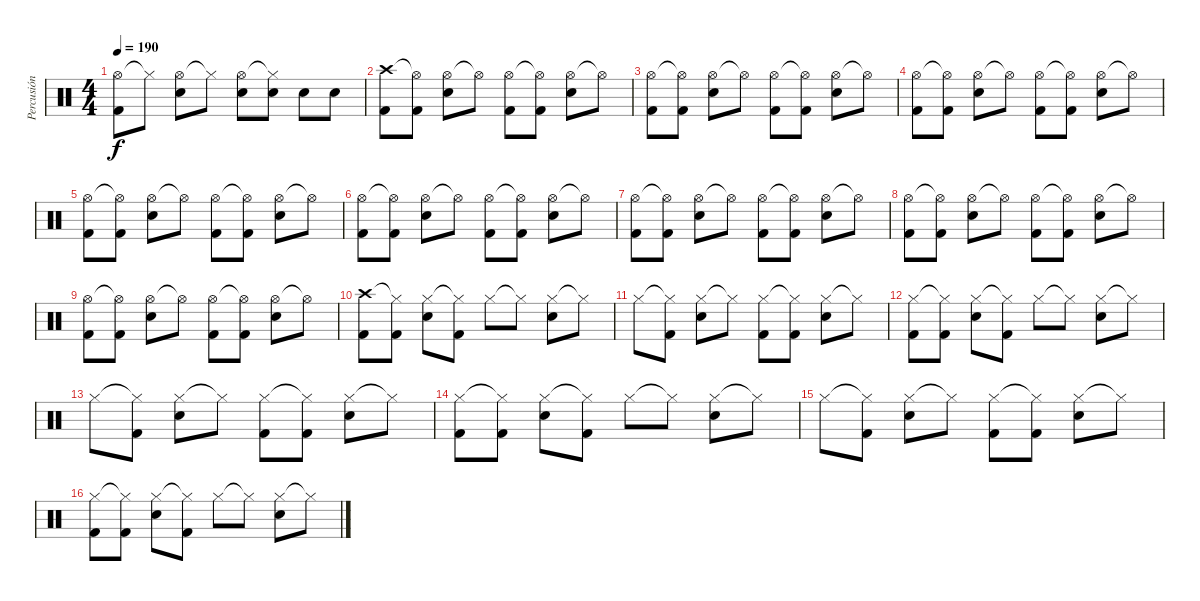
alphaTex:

\track ("Percusión" "Percusión") {instrument percussion}
\staff {score}
\articulation defaults
\ts (4 4)
\tempo 190
\clef neutral
\ks c
("Hi-Hat (open)" "Kick (hit) 2").8{dy f} "Hi-Hat (closed)"{t}.8 ("Hi-Hat (open)" "Snare (hit) 2").8 "Hi-Hat (closed)"{t}.8 ("Hi-Hat (open)" "Snare (hit) 2").8 ("Hi-Hat (closed)"{t} "Snare (hit) 2").8 "Snare (hit) 2".8 "Snare (hit) 2".8 |
("Crash high (hit)" "Kick (hit) 2").8 ("Hi-Hat (open)"{t} "Kick (hit) 2").8 ("Hi-Hat (open)" "Snare (hit) 2").8 "Hi-Hat (open)"{t}.8 ("Hi-Hat (open)" "Kick (hit) 2").8 ("Hi-Hat (open)"{t} "Kick (hit) 2").8 ("Hi-Hat (open)" "Snare (hit) 2").8 "Hi-Hat (open)"{t}.8 |
("Hi-Hat (open)" "Kick (hit) 2").8 ("Hi-Hat (open)"{t} "Kick (hit) 2").8 ("Hi-Hat (open)" "Snare (hit) 2").8 "Hi-Hat (open)"{t}.8 ("Hi-Hat (open)" "Kick (hit) 2").8 ("Hi-Hat (open)"{t} "Kick (hit) 2").8 ("Hi-Hat (open)" "Snare (hit) 2").8 "Hi-Hat (open)"{t}.8 |
("Hi-Hat (open)" "Kick (hit) 2").8 ("Hi-Hat (open)"{t} "Kick (hit) 2").8 ("Hi-Hat (open)" "Snare (hit) 2").8 "Hi-Hat (open)"{t}.8 ("Hi-Hat (open)" "Kick (hit) 2").8 ("Hi-Hat (open)"{t} "Kick (hit) 2").8 ("Hi-Hat (open)" "Snare (hit) 2").8 "Hi-Hat (open)"{t}.8 |
("Hi-Hat (open)" "Kick (hit) 2").8 ("Hi-Hat (open)"{t} "Kick (hit) 2").8 ("Hi-Hat (open)" "Snare (hit) 2").8 "Hi-Hat (open)"{t}.8 ("Hi-Hat (open)" "Kick (hit) 2").8 ("Hi-Hat (open)"{t} "Kick (hit) 2").8 ("Hi-Hat (open)" "Snare (hit) 2").8 "Hi-Hat (open)"{t}.8 |
("Hi-Hat (open)" "Kick (hit) 2").8 ("Hi-Hat (open)"{t} "Kick (hit) 2").8 ("Hi-Hat (open)" "Snare (hit) 2").8 "Hi-Hat (open)"{t}.8 ("Hi-Hat (open)" "Kick (hit) 2").8 ("Hi-Hat (open)"{t} "Kick (hit) 2").8 ("Hi-Hat (open)" "Snare (hit) 2").8 "Hi-Hat (open)"{t}.8 |
("Hi-Hat (open)" "Kick (hit) 2").8 ("Hi-Hat (open)"{t} "Kick (hit) 2").8 ("Hi-Hat (open)" "Snare (hit) 2").8 "Hi-Hat (open)"{t}.8 ("Hi-Hat (open)" "Kick (hit) 2").8 ("Hi-Hat (open)"{t} "Kick (hit) 2").8 ("Hi-Hat (open)" "Snare (hit) 2").8 "Hi-Hat (open)"{t}.8 |
("Hi-Hat (open)" "Kick (hit) 2").8 ("Hi-Hat (open)"{t} "Kick (hit) 2").8 ("Hi-Hat (open)" "Snare (hit) 2").8 "Hi-Hat (open)"{t}.8 ("Hi-Hat (open)" "Kick (hit) 2").8 ("Hi-Hat (open)"{t} "Kick (hit) 2").8 ("Hi-Hat (open)" "Snare (hit) 2").8 "Hi-Hat (open)"{t}.8 |
("Hi-Hat (open)" "Kick (hit) 2").8 ("Hi-Hat (open)"{t} "Kick (hit) 2").8 ("Hi-Hat (open)" "Snare (hit) 2").8 "Hi-Hat (open)"{t}.8 ("Hi-Hat (open)" "Kick (hit) 2").8 ("Hi-Hat (open)"{t} "Kick (hit) 2").8 ("Hi-Hat (open)" "Snare (hit) 2").8 "Hi-Hat (open)"{t}.8 |
("Crash high (hit)" "Kick (hit) 2").8 ("Hi-Hat (closed)"{t} "Kick (hit) 2").8 ("Hi-Hat (closed)" "Snare (hit) 2").8 ("Hi-Hat (closed)"{t} "Kick (hit) 2").8 "Hi-Hat (closed)".8 "Hi-Hat (closed)"{t}.8 ("Hi-Hat (closed)" "Snare (hit) 2").8 "Hi-Hat (closed)"{t}.8 |
"Hi-Hat (closed)".8 ("Hi-Hat (closed)"{t} "Kick (hit) 2").8 ("Hi-Hat (closed)" "Snare (hit) 2").8 "Hi-Hat (closed)"{t}.8 ("Hi-Hat (closed)" "Kick (hit) 2").8 ("Hi-Hat (closed)"{t} "Kick (hit) 2").8 ("Hi-Hat (closed)" "Snare (hit) 2").8 "Hi-Hat (closed)"{t}.8 |
("Hi-Hat (closed)" "Kick (hit) 2").8 ("Hi-Hat (closed)"{t} "Kick (hit) 2").8 ("Hi-Hat (closed)" "Snare (hit) 2").8 ("Hi-Hat (closed)"{t} "Kick (hit) 2").8 "Hi-Hat (closed)".8 "Hi-Hat (closed)"{t}.8 ("Hi-Hat (closed)" "Snare (hit) 2").8 "Hi-Hat (closed)"{t}.8 |
"Hi-Hat (closed)".8 ("Hi-Hat (closed)"{t} "Kick (hit) 2").8 ("Hi-Hat (closed)" "Snare (hit) 2").8 "Hi-Hat (closed)"{t}.8 ("Hi-Hat (closed)" "Kick (hit) 2").8 ("Hi-Hat (closed)"{t} "Kick (hit) 2").8 ("Hi-Hat (closed)" "Snare (hit) 2").8 "Hi-Hat (closed)"{t}.8 |
("Hi-Hat (closed)" "Kick (hit) 2").8 ("Hi-Hat (closed)"{t} "Kick (hit) 2").8 ("Hi-Hat (closed)" "Snare (hit) 2").8 ("Hi-Hat (closed)"{t} "Kick (hit) 2").8 "Hi-Hat (closed)".8 "Hi-Hat (closed)"{t}.8 ("Hi-Hat (closed)" "Snare (hit) 2").8 "Hi-Hat (closed)"{t}.8 |
"Hi-Hat (closed)".8 ("Hi-Hat (closed)"{t} "Kick (hit) 2").8 ("Hi-Hat (closed)" "Snare (hit) 2").8 "Hi-Hat (closed)"{t}.8 ("Hi-Hat (closed)" "Kick (hit) 2").8 ("Hi-Hat (closed)"{t} "Kick (hit) 2").8 ("Hi-Hat (closed)" "Snare (hit) 2").8 "Hi-Hat (closed)"{t}.8 |
("Hi-Hat (closed)" "Kick (hit) 2").8 ("Hi-Hat (closed)"{t} "Kick (hit) 2").8 ("Hi-Hat (closed)" "Snare (hit) 2").8 ("Hi-Hat (closed)"{t} "Kick (hit) 2").8 "Hi-Hat (closed)".8 "Hi-Hat (closed)"{t}.8 ("Hi-Hat (closed)" "Snare (hit) 2").8 "Hi-Hat (closed)"{t}.8
